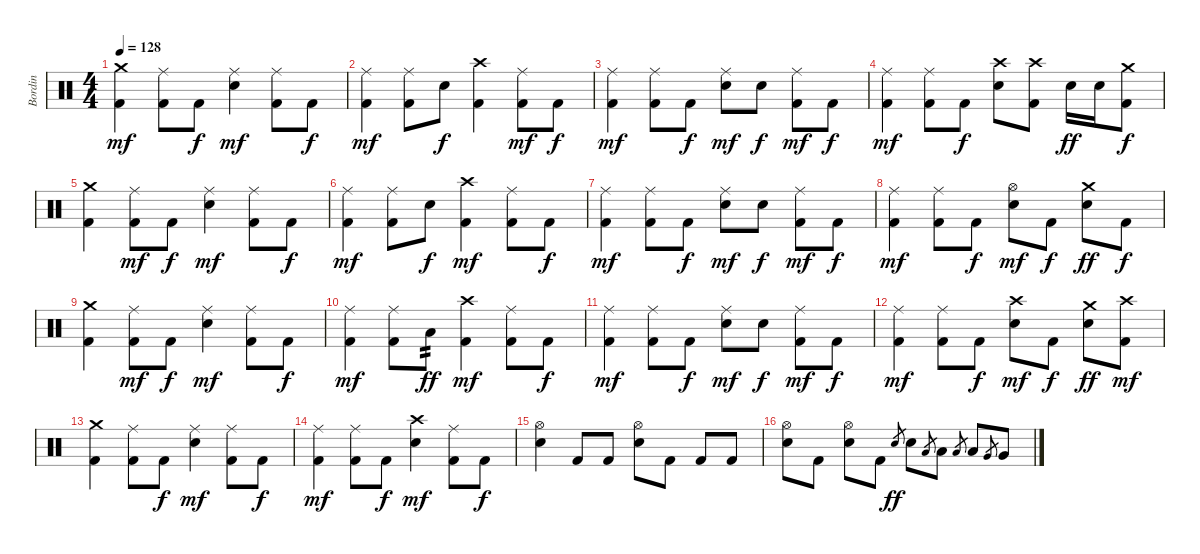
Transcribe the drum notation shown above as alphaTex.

\track ("Bordin" "Bordin") {instrument percussion}
\staff {score}
\articulation defaults
\ts (4 4)
\tempo 128
\clef neutral
\ks c
("Crash medium (hit)" "Kick (hit) 2").4{dy mf} ("Ride (middle)" "Kick (hit) 2").8 "Kick (hit) 2".8{dy f} ("Ride (middle)" "Electric Snare (hit)").4{dy mf} ("Ride (middle)" "Kick (hit) 2").8 "Kick (hit) 2".8{dy f} |
("Ride (middle)" "Kick (hit) 2").4{dy mf} ("Ride (middle)" "Kick (hit) 2").8 "Electric Snare (hit)".8{dy f} ("Crash high (hit)" "Kick (hit) 2").4 ("Ride (middle)" "Kick (hit) 2").8{dy mf} "Kick (hit) 2".8{dy f} |
("Ride (middle)" "Kick (hit) 2").4{dy mf} ("Ride (middle)" "Kick (hit) 2").8 "Kick (hit) 2".8{dy f} ("Ride (middle)" "Electric Snare (hit)").8{dy mf} "Electric Snare (hit)".8{dy f} ("Ride (middle)" "Kick (hit) 2").8{dy mf} "Kick (hit) 2".8{dy f} |
("Ride (middle)" "Kick (hit) 2").4{dy mf} ("Ride (middle)" "Kick (hit) 2").8 "Kick (hit) 2".8{dy f} ("Crash high (hit)" "Electric Snare (hit)").8 ("Crash high (hit)" "Kick (hit) 2").8 "Electric Snare (hit)".16{dy ff} "Electric Snare (hit)".16 ("Crash medium (hit)" "Kick (hit) 2").8{dy f} |
("Crash medium (hit)" "Kick (hit) 2").4 ("Ride (middle)" "Kick (hit) 2").8{dy mf} "Kick (hit) 2".8{dy f} ("Ride (middle)" "Electric Snare (hit)").4{dy mf} ("Ride (middle)" "Kick (hit) 2").8 "Kick (hit) 2".8{dy f} |
("Ride (middle)" "Kick (hit) 2").4{dy mf} ("Ride (middle)" "Kick (hit) 2").8 "Electric Snare (hit)".8{dy f} ("Crash high (hit)" "Kick (hit) 2").4{dy mf} ("Ride (middle)" "Kick (hit) 2").8 "Kick (hit) 2".8{dy f} |
("Ride (middle)" "Kick (hit) 2").4{dy mf} ("Ride (middle)" "Kick (hit) 2").8 "Kick (hit) 2".8{dy f} ("Ride (middle)" "Electric Snare (hit)").8{dy mf} "Electric Snare (hit)".8{dy f} ("Ride (middle)" "Kick (hit) 2").8{dy mf} "Kick (hit) 2".8{dy f} |
("Ride (middle)" "Kick (hit) 2").4{dy mf} ("Ride (middle)" "Kick (hit) 2").8 "Kick (hit) 2".8{dy f} ("Hi-Hat (open)" "Electric Snare (hit)").8{dy mf} "Kick (hit) 2".8{dy f} ("Crash medium (hit)" "Electric Snare (hit)").8{dy ff} "Kick (hit) 2".8{dy f} |
("Crash medium (hit)" "Kick (hit) 2").4 ("Ride (middle)" "Kick (hit) 2").8{dy mf} "Kick (hit) 2".8{dy f} ("Ride (middle)" "Electric Snare (hit)").4{dy mf} ("Ride (middle)" "Kick (hit) 2").8 "Kick (hit) 2".8{dy f} |
("Ride (middle)" "Kick (hit) 2").4{dy mf} ("Ride (middle)" "Kick (hit) 2").8 "Low Tom (hit)".8{tp 2 dy ff} ("Crash high (hit)" "Kick (hit) 2").4{dy mf} ("Ride (middle)" "Kick (hit) 2").8 "Kick (hit) 2".8{dy f} |
("Ride (middle)" "Kick (hit) 2").4{dy mf} ("Ride (middle)" "Kick (hit) 2").8 "Kick (hit) 2".8{dy f} ("Ride (middle)" "Electric Snare (hit)").8{dy mf} "Electric Snare (hit)".8{dy f} ("Ride (middle)" "Kick (hit) 2").8{dy mf} "Kick (hit) 2".8{dy f} |
("Ride (middle)" "Kick (hit) 2").4{dy mf} ("Ride (middle)" "Kick (hit) 2").8 "Kick (hit) 2".8{dy f} ("Crash high (hit)" "Electric Snare (hit)").8{dy mf} "Kick (hit) 2".8{dy f} ("Crash medium (hit)" "Electric Snare (hit)").8{dy ff} ("Crash high (hit)" "Kick (hit) 2").8{dy mf} |
("Crash medium (hit)" "Kick (hit) 2").4 ("Ride (middle)" "Kick (hit) 2").8 "Kick (hit) 2".8{dy f} ("Ride (middle)" "Electric Snare (hit)").4{dy mf} ("Ride (middle)" "Kick (hit) 2").8 "Kick (hit) 2".8{dy f} |
("Ride (middle)" "Kick (hit) 2").4{dy mf} ("Ride (middle)" "Kick (hit) 2").8 "Kick (hit) 2".8{dy f} ("Crash high (hit)" "Electric Snare (hit)").4{dy mf} ("Ride (middle)" "Kick (hit) 2").8 "Kick (hit) 2".8{dy f} |
("Hi-Hat (open)" "Electric Snare (hit)").4 "Kick (hit) 2".8 "Kick (hit) 2".8 ("Hi-Hat (open)" "Electric Snare (hit)").8 "Kick (hit) 2".8 "Kick (hit) 2".8 "Kick (hit) 2".8 |
("Hi-Hat (open)" "Electric Snare (hit)").8 "Kick (hit) 2".8 ("Hi-Hat (open)" "Electric Snare (hit)").8 "Kick (hit) 2".8 "Electric Snare (hit)".8{gr dy ff} "Electric Snare (hit)".8 "Low Tom (hit)".8{gr} "Low Tom (hit)".8 "Low Tom (hit)".8{gr} "Low Tom (hit)".8 "Very Low Tom (hit)".8{gr} "Very Low Tom (hit)".8
